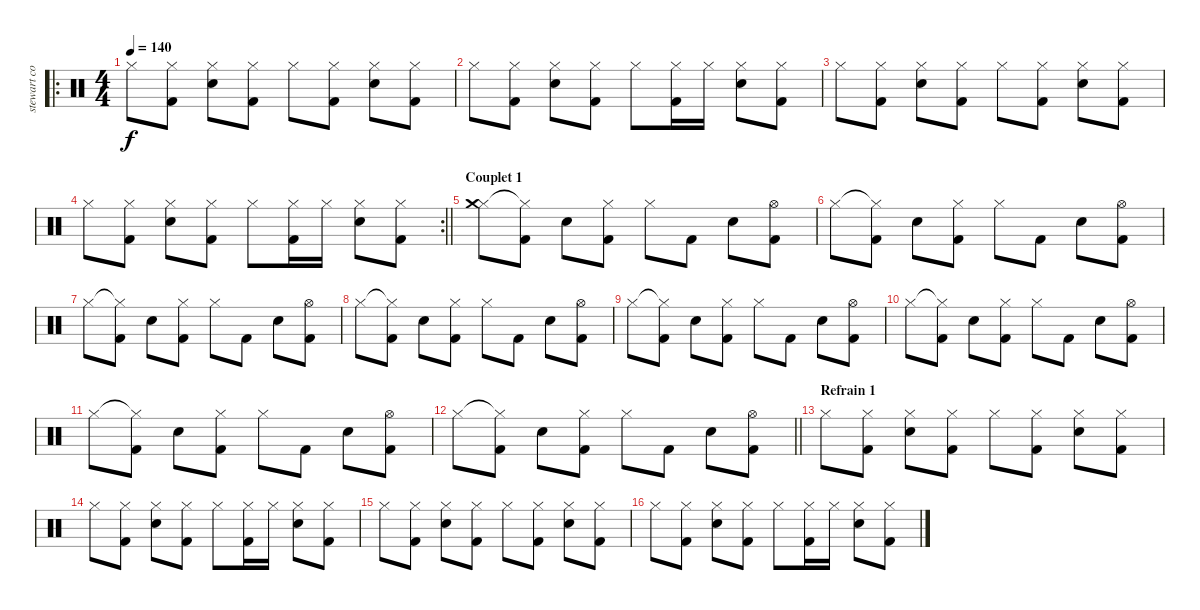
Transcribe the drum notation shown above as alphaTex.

\track ("stewart copeland" "stewart co") {instrument percussion}
\staff {score}
\articulation defaults
\ro
\ts (4 4)
\tempo 140
\clef neutral
\ks c "Hi-Hat (closed)".8{dy f}
("Hi-Hat (closed)" "Kick (hit) 2").8 ("Hi-Hat (closed)" "Snare (hit) 2").8 ("Hi-Hat (closed)" "Kick (hit) 2").8 "Hi-Hat (closed)".8 ("Hi-Hat (closed)" "Kick (hit) 2").8 ("Hi-Hat (closed)" "Snare (hit) 2").8 ("Hi-Hat (closed)" "Kick (hit) 2").8 |
"Hi-Hat (closed)".8 ("Hi-Hat (closed)" "Kick (hit) 2").8 ("Hi-Hat (closed)" "Snare (hit) 2").8 ("Hi-Hat (closed)" "Kick (hit) 2").8 "Hi-Hat (closed)".8 ("Hi-Hat (closed)" "Kick (hit) 2").16 "Hi-Hat (closed)".16 ("Hi-Hat (closed)" "Snare (hit) 2").8 ("Hi-Hat (closed)" "Kick (hit) 2").8 |
"Hi-Hat (closed)".8 ("Hi-Hat (closed)" "Kick (hit) 2").8 ("Hi-Hat (closed)" "Snare (hit) 2").8 ("Hi-Hat (closed)" "Kick (hit) 2").8 "Hi-Hat (closed)".8 ("Hi-Hat (closed)" "Kick (hit) 2").8 ("Hi-Hat (closed)" "Snare (hit) 2").8 ("Hi-Hat (closed)" "Kick (hit) 2").8 |
\rc 2
\barLineRight lightlight "Hi-Hat (closed)".8
("Hi-Hat (closed)" "Kick (hit) 2").8 ("Hi-Hat (closed)" "Snare (hit) 2").8 ("Hi-Hat (closed)" "Kick (hit) 2").8 "Hi-Hat (closed)".8 ("Hi-Hat (closed)" "Kick (hit) 2").16 "Hi-Hat (closed)".16 ("Hi-Hat (closed)" "Snare (hit) 2").8 ("Hi-Hat (closed)" "Kick (hit) 2").8 |
\section ("" "Couplet 1")
("Hi-Hat (closed)" "Crash medium (hit)").8 ("Hi-Hat (closed)"{t} "Kick (hit) 2").8 "Snare (hit) 2".8 ("Hi-Hat (closed)" "Kick (hit) 2").8 "Hi-Hat (closed)".8 "Kick (hit) 2".8 "Snare (hit) 2".8 ("Hi-Hat (open)" "Kick (hit) 2").8 |
"Hi-Hat (closed)".8 ("Hi-Hat (closed)"{t} "Kick (hit) 2").8 "Snare (hit) 2".8 ("Hi-Hat (closed)" "Kick (hit) 2").8 "Hi-Hat (closed)".8 "Kick (hit) 2".8 "Snare (hit) 2".8 ("Hi-Hat (open)" "Kick (hit) 2").8 |
"Hi-Hat (closed)".8 ("Hi-Hat (closed)"{t} "Kick (hit) 2").8 "Snare (hit) 2".8 ("Hi-Hat (closed)" "Kick (hit) 2").8 "Hi-Hat (closed)".8 "Kick (hit) 2".8 "Snare (hit) 2".8 ("Hi-Hat (open)" "Kick (hit) 2").8 |
"Hi-Hat (closed)".8 ("Hi-Hat (closed)"{t} "Kick (hit) 2").8 "Snare (hit) 2".8 ("Hi-Hat (closed)" "Kick (hit) 2").8 "Hi-Hat (closed)".8 "Kick (hit) 2".8 "Snare (hit) 2".8 ("Hi-Hat (open)" "Kick (hit) 2").8 |
"Hi-Hat (closed)".8 ("Hi-Hat (closed)"{t} "Kick (hit) 2").8 "Snare (hit) 2".8 ("Hi-Hat (closed)" "Kick (hit) 2").8 "Hi-Hat (closed)".8 "Kick (hit) 2".8 "Snare (hit) 2".8 ("Hi-Hat (open)" "Kick (hit) 2").8 |
"Hi-Hat (closed)".8 ("Hi-Hat (closed)"{t} "Kick (hit) 2").8 "Snare (hit) 2".8 ("Hi-Hat (closed)" "Kick (hit) 2").8 "Hi-Hat (closed)".8 "Kick (hit) 2".8 "Snare (hit) 2".8 ("Hi-Hat (open)" "Kick (hit) 2").8 |
"Hi-Hat (closed)".8 ("Hi-Hat (closed)"{t} "Kick (hit) 2").8 "Snare (hit) 2".8 ("Hi-Hat (closed)" "Kick (hit) 2").8 "Hi-Hat (closed)".8 "Kick (hit) 2".8 "Snare (hit) 2".8 ("Hi-Hat (open)" "Kick (hit) 2").8 |
\barLineRight lightlight "Hi-Hat (closed)".8
("Hi-Hat (closed)"{t} "Kick (hit) 2").8 "Snare (hit) 2".8 ("Hi-Hat (closed)" "Kick (hit) 2").8 "Hi-Hat (closed)".8 "Kick (hit) 2".8 "Snare (hit) 2".8 ("Hi-Hat (open)" "Kick (hit) 2").8 |
\section ("" "Refrain 1")
"Hi-Hat (closed)".8 ("Hi-Hat (closed)" "Kick (hit) 2").8 ("Hi-Hat (closed)" "Snare (hit) 2").8 ("Hi-Hat (closed)" "Kick (hit) 2").8 "Hi-Hat (closed)".8 ("Hi-Hat (closed)" "Kick (hit) 2").8 ("Hi-Hat (closed)" "Snare (hit) 2").8 ("Hi-Hat (closed)" "Kick (hit) 2").8 |
"Hi-Hat (closed)".8 ("Hi-Hat (closed)" "Kick (hit) 2").8 ("Hi-Hat (closed)" "Snare (hit) 2").8 ("Hi-Hat (closed)" "Kick (hit) 2").8 "Hi-Hat (closed)".8 ("Hi-Hat (closed)" "Kick (hit) 2").16 "Hi-Hat (closed)".16 ("Hi-Hat (closed)" "Snare (hit) 2").8 ("Hi-Hat (closed)" "Kick (hit) 2").8 |
"Hi-Hat (closed)".8 ("Hi-Hat (closed)" "Kick (hit) 2").8 ("Hi-Hat (closed)" "Snare (hit) 2").8 ("Hi-Hat (closed)" "Kick (hit) 2").8 "Hi-Hat (closed)".8 ("Hi-Hat (closed)" "Kick (hit) 2").8 ("Hi-Hat (closed)" "Snare (hit) 2").8 ("Hi-Hat (closed)" "Kick (hit) 2").8 |
"Hi-Hat (closed)".8 ("Hi-Hat (closed)" "Kick (hit) 2").8 ("Hi-Hat (closed)" "Snare (hit) 2").8 ("Hi-Hat (closed)" "Kick (hit) 2").8 "Hi-Hat (closed)".8 ("Hi-Hat (closed)" "Kick (hit) 2").16 "Hi-Hat (closed)".16 ("Hi-Hat (closed)" "Snare (hit) 2").8 ("Hi-Hat (closed)" "Kick (hit) 2").8
